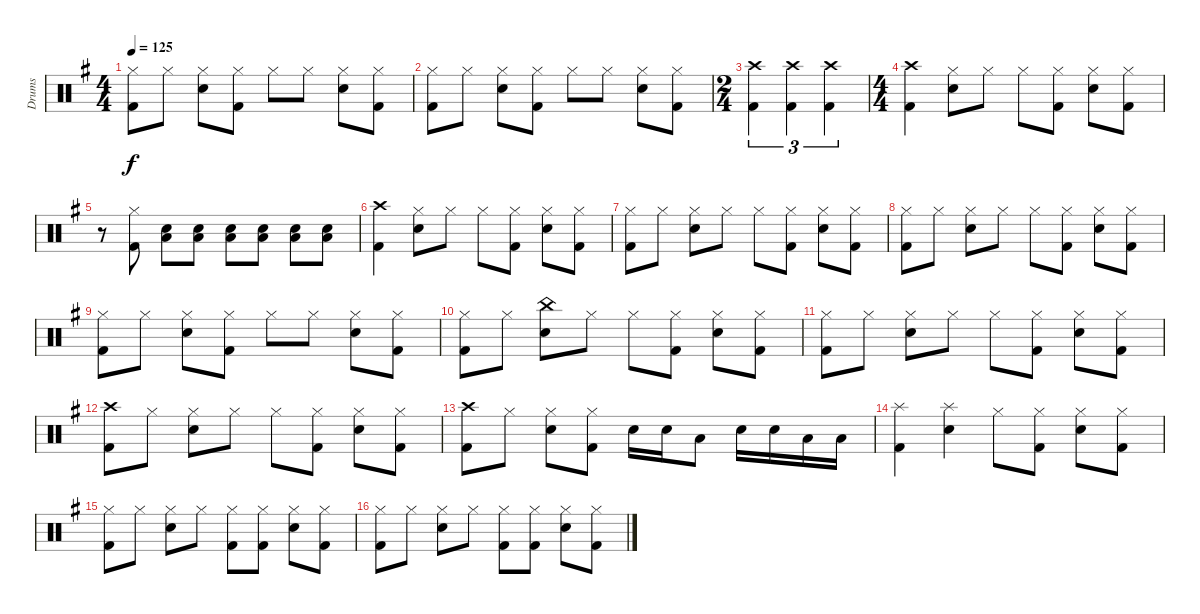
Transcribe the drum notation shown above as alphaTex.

\track ("Drums" "Drums") {instrument percussion}
\staff {score}
\articulation defaults
\ts (4 4)
\tempo 125
\clef neutral
\ks eminor
("Hi-Hat (closed)" "Kick (hit) 2").8{dy f} "Hi-Hat (closed)".8 ("Hi-Hat (closed)" "Electric Snare (hit)").8 ("Hi-Hat (closed)" "Kick (hit) 2").8 "Hi-Hat (closed)".8 "Hi-Hat (closed)".8 ("Hi-Hat (closed)" "Electric Snare (hit)").8 ("Hi-Hat (closed)" "Kick (hit) 2").8 |
("Hi-Hat (closed)" "Kick (hit) 2").8 "Hi-Hat (closed)".8 ("Hi-Hat (closed)" "Electric Snare (hit)").8 ("Hi-Hat (closed)" "Kick (hit) 2").8 "Hi-Hat (closed)".8 "Hi-Hat (closed)".8 ("Hi-Hat (closed)" "Electric Snare (hit)").8 ("Hi-Hat (closed)" "Kick (hit) 2").8 |
\ts (2 4)
("Crash high (hit)" "Kick (hit) 2").4{tu (3 2)} ("Crash high (hit)" "Kick (hit) 2").4{tu (3 2)} ("Crash high (hit)" "Kick (hit) 2").4{tu (3 2)} |
\ts (4 4)
("Crash high (hit)" "Kick (hit) 2").4 ("Hi-Hat (closed)" "Electric Snare (hit)").8 "Hi-Hat (closed)".8 "Hi-Hat (closed)".8 ("Hi-Hat (closed)" "Kick (hit) 2").8 ("Hi-Hat (closed)" "Electric Snare (hit)").8 ("Hi-Hat (closed)" "Kick (hit) 2").8 |
r.8 ("Hi-Hat (closed)" "Kick (hit) 2").8 ("Electric Snare (hit)" "Low Tom (hit)").8 ("Electric Snare (hit)" "Low Tom (hit)").8 ("Electric Snare (hit)" "Low Tom (hit)").8 ("Electric Snare (hit)" "Low Tom (hit)").8 ("Electric Snare (hit)" "Low Tom (hit)").8 ("Electric Snare (hit)" "Low Tom (hit)").8 |
("Crash high (hit)" "Kick (hit) 2").4 ("Hi-Hat (closed)" "Electric Snare (hit)").8 "Hi-Hat (closed)".8 "Hi-Hat (closed)".8 ("Hi-Hat (closed)" "Kick (hit) 2").8 ("Hi-Hat (closed)" "Electric Snare (hit)").8 ("Hi-Hat (closed)" "Kick (hit) 2").8 |
("Hi-Hat (closed)" "Kick (hit) 2").8 "Hi-Hat (closed)".8 ("Hi-Hat (closed)" "Electric Snare (hit)").8 "Hi-Hat (closed)".8 "Hi-Hat (closed)".8 ("Hi-Hat (closed)" "Kick (hit) 2").8 ("Hi-Hat (closed)" "Electric Snare (hit)").8 ("Hi-Hat (closed)" "Kick (hit) 2").8 |
("Hi-Hat (closed)" "Kick (hit) 2").8 "Hi-Hat (closed)".8 ("Hi-Hat (closed)" "Electric Snare (hit)").8 "Hi-Hat (closed)".8 "Hi-Hat (closed)".8 ("Hi-Hat (closed)" "Kick (hit) 2").8 ("Hi-Hat (closed)" "Electric Snare (hit)").8 ("Hi-Hat (closed)" "Kick (hit) 2").8 |
("Hi-Hat (closed)" "Kick (hit) 2").8 "Hi-Hat (closed)".8 ("Hi-Hat (closed)" "Electric Snare (hit)").8 ("Hi-Hat (closed)" "Kick (hit) 2").8 "Hi-Hat (closed)".8 "Hi-Hat (closed)".8 ("Hi-Hat (closed)" "Electric Snare (hit)").8 ("Hi-Hat (closed)" "Kick (hit) 2").8 |
("Hi-Hat (closed)" "Kick (hit) 2").8 "Hi-Hat (closed)".8 ("China (hit)" "Electric Snare (hit)").8 "Hi-Hat (closed)".8 "Hi-Hat (closed)".8 ("Hi-Hat (closed)" "Kick (hit) 2").8 ("Hi-Hat (closed)" "Electric Snare (hit)").8 ("Hi-Hat (closed)" "Kick (hit) 2").8 |
("Hi-Hat (closed)" "Kick (hit) 2").8 "Hi-Hat (closed)".8 ("Hi-Hat (closed)" "Electric Snare (hit)").8 "Hi-Hat (closed)".8 "Hi-Hat (closed)".8 ("Hi-Hat (closed)" "Kick (hit) 2").8 ("Hi-Hat (closed)" "Electric Snare (hit)").8 ("Hi-Hat (closed)" "Kick (hit) 2").8 |
("Crash high (hit)" "Kick (hit) 2").8 "Hi-Hat (closed)".8 ("Hi-Hat (closed)" "Electric Snare (hit)").8 "Hi-Hat (closed)".8 "Hi-Hat (closed)".8 ("Hi-Hat (closed)" "Kick (hit) 2").8 ("Hi-Hat (closed)" "Electric Snare (hit)").8 ("Hi-Hat (closed)" "Kick (hit) 2").8 |
("Crash high (hit)" "Kick (hit) 2").8 "Hi-Hat (closed)".8 ("Hi-Hat (closed)" "Electric Snare (hit)").8 ("Hi-Hat (closed)" "Kick (hit) 2").8 "Electric Snare (hit)".16 "Electric Snare (hit)".16 "Low Tom (hit)".8 "Electric Snare (hit)".16 "Electric Snare (hit)".16 "Low Tom (hit)".16 "Low Tom (hit)".16 |
("Splash (hit)" "Kick (hit) 2").4 ("Splash (hit)" "Electric Snare (hit)").4 "Hi-Hat (closed)".8 ("Hi-Hat (closed)" "Kick (hit) 2").8 ("Hi-Hat (closed)" "Electric Snare (hit)").8 ("Hi-Hat (closed)" "Kick (hit) 2").8 |
("Hi-Hat (closed)" "Kick (hit) 2").8 "Hi-Hat (closed)".8 ("Hi-Hat (closed)" "Electric Snare (hit)").8 "Hi-Hat (closed)".8 ("Hi-Hat (closed)" "Kick (hit) 2").8 ("Hi-Hat (closed)" "Kick (hit) 2").8 ("Hi-Hat (closed)" "Electric Snare (hit)").8 ("Hi-Hat (closed)" "Kick (hit) 2").8 |
("Hi-Hat (closed)" "Kick (hit) 2").8 "Hi-Hat (closed)".8 ("Hi-Hat (closed)" "Electric Snare (hit)").8 "Hi-Hat (closed)".8 ("Hi-Hat (closed)" "Kick (hit) 2").8 ("Hi-Hat (closed)" "Kick (hit) 2").8 ("Hi-Hat (closed)" "Electric Snare (hit)").8 ("Hi-Hat (closed)" "Kick (hit) 2").8
